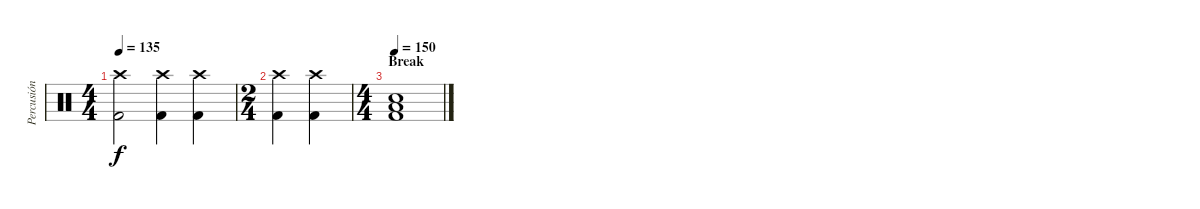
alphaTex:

\track ("Percusión" "Percusión") {instrument percussion}
\staff {score}
\articulation defaults
\ts (4 4)
\tempo 135
\clef neutral
\ks c
("Crash high (hit)" "Kick (hit) 2").2{dy f volume 13} ("Crash high (hit)" "Kick (hit) 2").4 ("Crash high (hit)" "Kick (hit) 2").4 |
\ts (2 4)
("Crash high (hit)" "Kick (hit) 2").4 ("Crash high (hit)" "Kick (hit) 2").4 |
\ts (4 4)
\section ("" "Break")
\tempo 150
("Snare (hit) 2" "Low Floor Tom (hit)" "Kick (hit) 2").1
